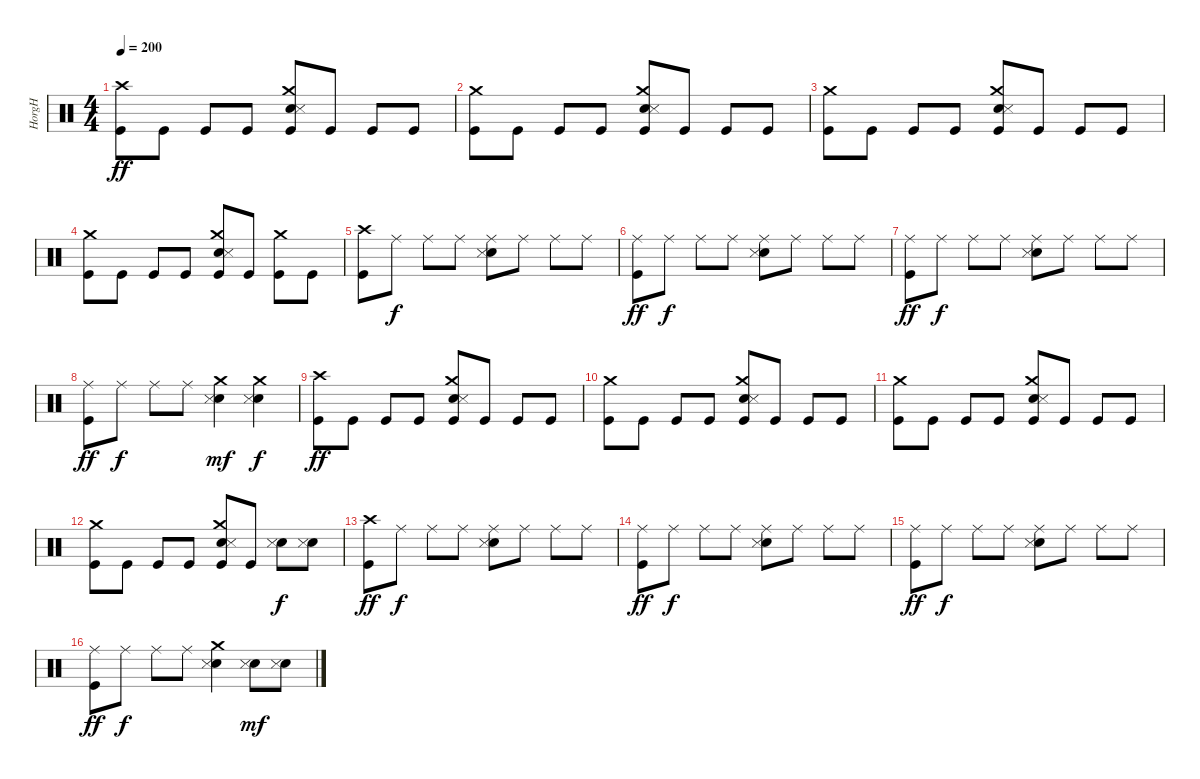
\track ("HorgH" "HorgH") {instrument percussion}
\staff {score}
\articulation defaults
\ts (4 4)
\section ("" "")
\tempo 200
\clef neutral
\ks c
("Crash high (hit)" "Kick (hit)").8{dy ff} "Kick (hit)".8 "Kick (hit)".8 "Kick (hit)".8 ("Crash medium (hit)" "Electric Snare (hit)" "Snare (side stick) 3" "Kick (hit)").8 "Kick (hit)".8 "Kick (hit)".8 "Kick (hit)".8 |
("Crash medium (hit)" "Kick (hit)").8 "Kick (hit)".8 "Kick (hit)".8 "Kick (hit)".8 ("Crash medium (hit)" "Electric Snare (hit)" "Snare (side stick) 3" "Kick (hit)").8 "Kick (hit)".8 "Kick (hit)".8 "Kick (hit)".8 |
("Crash medium (hit)" "Kick (hit)").8 "Kick (hit)".8 "Kick (hit)".8 "Kick (hit)".8 ("Crash medium (hit)" "Electric Snare (hit)" "Snare (side stick) 3" "Kick (hit)").8 "Kick (hit)".8 "Kick (hit)".8 "Kick (hit)".8 |
("Crash medium (hit)" "Kick (hit)").8 "Kick (hit)".8 "Kick (hit)".8 "Kick (hit)".8 ("Crash medium (hit)" "Electric Snare (hit)" "Snare (side stick) 3" "Kick (hit)").8 "Kick (hit)".8 ("Crash medium (hit)" "Kick (hit)").8 "Kick (hit)".8 |
("Crash high (hit)" "Kick (hit)").8 "Ride (middle)".8{dy f} "Ride (middle)".8 "Ride (middle)".8 ("Ride (middle)" "Electric Snare (hit)" "Snare (side stick) 3").8 "Ride (middle)".8 "Ride (middle)".8 "Ride (middle)".8 |
("Ride (middle)" "Kick (hit)").8{dy ff} "Ride (middle)".8{dy f} "Ride (middle)".8 "Ride (middle)".8 ("Ride (middle)" "Electric Snare (hit)" "Snare (side stick) 3").8 "Ride (middle)".8 "Ride (middle)".8 "Ride (middle)".8 |
("Ride (middle)" "Kick (hit)").8{dy ff} "Ride (middle)".8{dy f} "Ride (middle)".8 "Ride (middle)".8 ("Ride (middle)" "Electric Snare (hit)" "Snare (side stick) 3").8 "Ride (middle)".8 "Ride (middle)".8 "Ride (middle)".8 |
("Ride (middle)" "Kick (hit)").8{dy ff} "Ride (middle)".8{dy f} "Ride (middle)".8 "Ride (middle)".8 ("Crash medium (hit)" "Electric Snare (hit)" "Snare (side stick) 3").4{dy mf} ("Crash medium (hit)" "Electric Snare (hit)" "Snare (side stick) 3").4{dy f} |
\section ("" "")
("Crash high (hit)" "Kick (hit)").8{dy ff} "Kick (hit)".8 "Kick (hit)".8 "Kick (hit)".8 ("Crash medium (hit)" "Electric Snare (hit)" "Snare (side stick) 3" "Kick (hit)").8 "Kick (hit)".8 "Kick (hit)".8 "Kick (hit)".8 |
("Crash medium (hit)" "Kick (hit)").8 "Kick (hit)".8 "Kick (hit)".8 "Kick (hit)".8 ("Crash medium (hit)" "Electric Snare (hit)" "Snare (side stick) 3" "Kick (hit)").8 "Kick (hit)".8 "Kick (hit)".8 "Kick (hit)".8 |
("Crash medium (hit)" "Kick (hit)").8 "Kick (hit)".8 "Kick (hit)".8 "Kick (hit)".8 ("Crash medium (hit)" "Electric Snare (hit)" "Snare (side stick) 3" "Kick (hit)").8 "Kick (hit)".8 "Kick (hit)".8 "Kick (hit)".8 |
("Crash medium (hit)" "Kick (hit)").8 "Kick (hit)".8 "Kick (hit)".8 "Kick (hit)".8 ("Crash medium (hit)" "Electric Snare (hit)" "Snare (side stick) 3" "Kick (hit)").8 "Kick (hit)".8 ("Electric Snare (hit)" "Snare (side stick) 3").8{dy f} ("Electric Snare (hit)" "Snare (side stick) 3").8 |
("Crash high (hit)" "Kick (hit)").8{dy ff} "Ride (middle)".8{dy f} "Ride (middle)".8 "Ride (middle)".8 ("Ride (middle)" "Electric Snare (hit)" "Snare (side stick) 3").8 "Ride (middle)".8 "Ride (middle)".8 "Ride (middle)".8 |
("Ride (middle)" "Kick (hit)").8{dy ff} "Ride (middle)".8{dy f} "Ride (middle)".8 "Ride (middle)".8 ("Ride (middle)" "Electric Snare (hit)" "Snare (side stick) 3").8 "Ride (middle)".8 "Ride (middle)".8 "Ride (middle)".8 |
("Ride (middle)" "Kick (hit)").8{dy ff} "Ride (middle)".8{dy f} "Ride (middle)".8 "Ride (middle)".8 ("Ride (middle)" "Electric Snare (hit)" "Snare (side stick) 3").8 "Ride (middle)".8 "Ride (middle)".8 "Ride (middle)".8 |
("Ride (middle)" "Kick (hit)").8{dy ff} "Ride (middle)".8{dy f} "Ride (middle)".8 "Ride (middle)".8 ("Crash medium (hit)" "Electric Snare (hit)" "Snare (side stick) 3").4 ("Electric Snare (hit)" "Snare (side stick) 3").8{dy mf} ("Electric Snare (hit)" "Snare (side stick) 3").8
